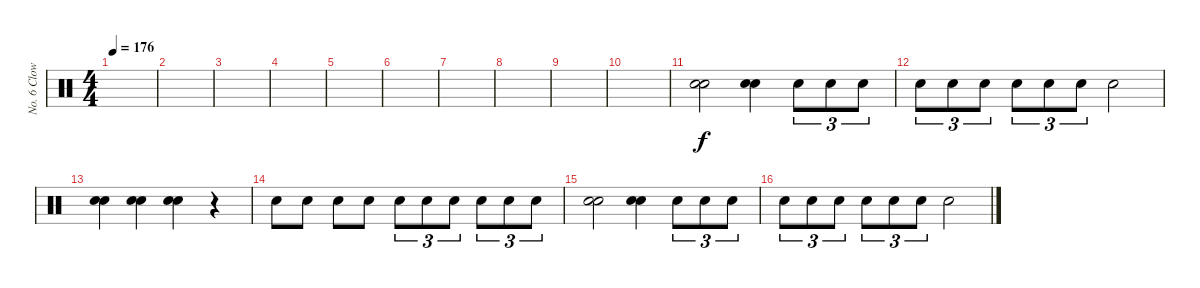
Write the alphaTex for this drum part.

\track ("No. 6 Clown" "No. 6 Clow") {instrument percussion}
\staff {score}
\articulation defaults
\ts (4 4)
\tempo 176
\clef neutral
\ks c
|
|
|
|
|
|
|
|
|
|
("Electric Snare (hit)" "Electric Snare (hit)").2 ("Electric Snare (hit)" "Electric Snare (hit)").4 "Electric Snare (hit)".8{tu (3 2)} "Electric Snare (hit)".8{tu (3 2)} "Electric Snare (hit)".8{tu (3 2)} |
"Electric Snare (hit)".8{tu (3 2)} "Electric Snare (hit)".8{tu (3 2)} "Electric Snare (hit)".8{tu (3 2)} "Electric Snare (hit)".8{tu (3 2)} "Electric Snare (hit)".8{tu (3 2)} "Electric Snare (hit)".8{tu (3 2)} "Electric Snare (hit)".2 |
("Electric Snare (hit)" "Electric Snare (hit)").4 ("Electric Snare (hit)" "Electric Snare (hit)").4 ("Electric Snare (hit)" "Electric Snare (hit)").4 r.4 |
"Electric Snare (hit)".8 "Electric Snare (hit)".8 "Electric Snare (hit)".8 "Electric Snare (hit)".8 "Electric Snare (hit)".8{tu (3 2)} "Electric Snare (hit)".8{tu (3 2)} "Electric Snare (hit)".8{tu (3 2)} "Electric Snare (hit)".8{tu (3 2)} "Electric Snare (hit)".8{tu (3 2)} "Electric Snare (hit)".8{tu (3 2)} |
("Electric Snare (hit)" "Electric Snare (hit)").2 ("Electric Snare (hit)" "Electric Snare (hit)").4 "Electric Snare (hit)".8{tu (3 2)} "Electric Snare (hit)".8{tu (3 2)} "Electric Snare (hit)".8{tu (3 2)} |
"Electric Snare (hit)".8{tu (3 2)} "Electric Snare (hit)".8{tu (3 2)} "Electric Snare (hit)".8{tu (3 2)} "Electric Snare (hit)".8{tu (3 2)} "Electric Snare (hit)".8{tu (3 2)} "Electric Snare (hit)".8{tu (3 2)} "Electric Snare (hit)".2
